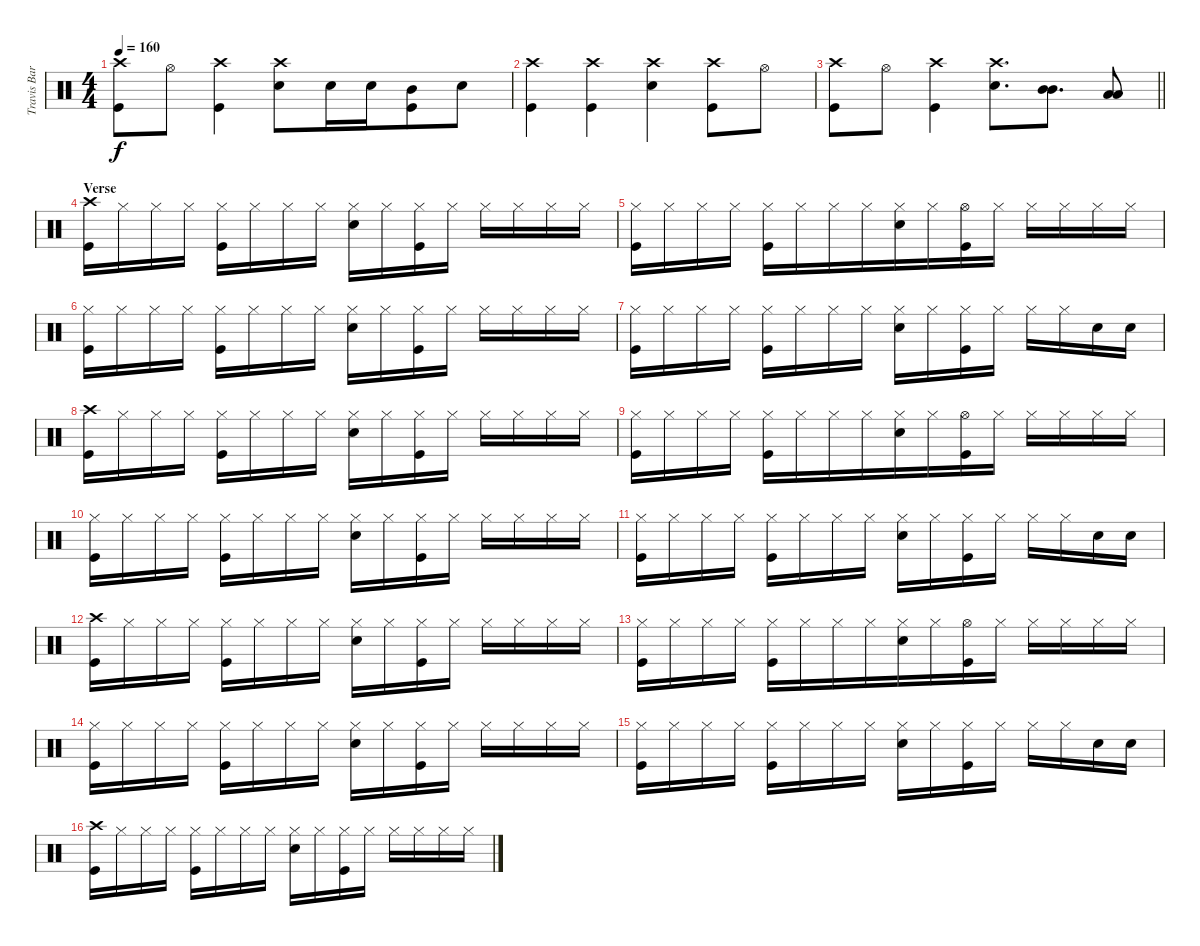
\track ("Travis Barker Drums" "Travis Bar") {instrument percussion}
\staff {score}
\articulation defaults
\ts (4 4)
\tempo 160
\clef neutral
\ks c
("Kick (hit)" "Crash high (hit)").8{dy f} "Hi-Hat (open)".8{beam merge} ("Kick (hit)" "Crash high (hit)").4{beam merge} ("Crash high (hit)" "Snare (hit) 2").8 "Snare (hit) 2".16 "Snare (hit) 2".16{beam merge} ("Kick (hit)" "Mid Tom (hit)").8{beam merge} "Snare (hit) 2".8 |
("Kick (hit)" "Crash high (hit)").4 ("Kick (hit)" "Crash high (hit)").4 ("Crash high (hit)" "Snare (hit) 2").4{beam merge} ("Kick (hit)" "Crash high (hit)").8{beam merge} "Hi-Hat (open)".8 |
\barLineRight lightlight
("Kick (hit)" "Crash high (hit)").8 "Hi-Hat (open)".8{beam merge} ("Kick (hit)" "Crash high (hit)").4{beam merge} ("Crash high (hit)" "Snare (hit) 2").8{d beam merge} ("Mid Tom (hit)" "Mid Tom (hit)").8{d} ("Low Tom (hit)" "Low Tom (hit)").8 |
\section ("" "Verse")
("Crash high (hit)" "Kick (hit)").16 "Hi-Hat (closed)".16{beam merge} "Hi-Hat (closed)".16 "Hi-Hat (closed)".16 ("Hi-Hat (closed)" "Kick (hit)").16{beam merge} "Hi-Hat (closed)".16 "Hi-Hat (closed)".16 "Hi-Hat (closed)".16 ("Hi-Hat (closed)" "Snare (hit) 2").16 "Hi-Hat (closed)".16 ("Hi-Hat (closed)" "Kick (hit)").16 "Hi-Hat (closed)".16 "Hi-Hat (closed)".16{beam merge} "Hi-Hat (closed)".16 "Hi-Hat (closed)".16 "Hi-Hat (closed)".16 |
("Hi-Hat (closed)" "Kick (hit)").16 "Hi-Hat (closed)".16{beam merge} "Hi-Hat (closed)".16 "Hi-Hat (closed)".16 ("Hi-Hat (closed)" "Kick (hit)").16 "Hi-Hat (closed)".16{beam merge} "Hi-Hat (closed)".16 "Hi-Hat (closed)".16{beam merge} ("Hi-Hat (closed)" "Snare (hit) 2").16{beam merge} "Hi-Hat (closed)".16 ("Hi-Hat (open)" "Kick (hit)").16{beam merge} "Hi-Hat (closed)".16 "Hi-Hat (closed)".16{beam merge} "Hi-Hat (closed)".16{beam merge} "Hi-Hat (closed)".16{beam merge} "Hi-Hat (closed)".16 |
("Hi-Hat (closed)" "Kick (hit)").16{beam merge} "Hi-Hat (closed)".16{beam merge} "Hi-Hat (closed)".16{beam merge} "Hi-Hat (closed)".16 ("Hi-Hat (closed)" "Kick (hit)").16 "Hi-Hat (closed)".16{beam merge} "Hi-Hat (closed)".16{beam merge} "Hi-Hat (closed)".16 ("Hi-Hat (closed)" "Snare (hit) 2").16 "Hi-Hat (closed)".16 ("Hi-Hat (closed)" "Kick (hit)").16 "Hi-Hat (closed)".16 "Hi-Hat (closed)".16{beam merge} "Hi-Hat (closed)".16 "Hi-Hat (closed)".16 "Hi-Hat (closed)".16 |
("Hi-Hat (closed)" "Kick (hit)").16 "Hi-Hat (closed)".16{beam merge} "Hi-Hat (closed)".16 "Hi-Hat (closed)".16 ("Hi-Hat (closed)" "Kick (hit)").16 "Hi-Hat (closed)".16{beam merge} "Hi-Hat (closed)".16 "Hi-Hat (closed)".16 ("Hi-Hat (closed)" "Snare (hit) 2").16 "Hi-Hat (closed)".16 ("Hi-Hat (closed)" "Kick (hit)").16 "Hi-Hat (closed)".16 "Hi-Hat (closed)".16{beam merge} "Hi-Hat (closed)".16 "Snare (hit) 2".16 "Snare (hit) 2".16 |
("Crash high (hit)" "Kick (hit)").16 "Hi-Hat (closed)".16{beam merge} "Hi-Hat (closed)".16 "Hi-Hat (closed)".16 ("Hi-Hat (closed)" "Kick (hit)").16 "Hi-Hat (closed)".16{beam merge} "Hi-Hat (closed)".16 "Hi-Hat (closed)".16 ("Hi-Hat (closed)" "Snare (hit) 2").16 "Hi-Hat (closed)".16 ("Hi-Hat (closed)" "Kick (hit)").16 "Hi-Hat (closed)".16 "Hi-Hat (closed)".16{beam merge} "Hi-Hat (closed)".16 "Hi-Hat (closed)".16 "Hi-Hat (closed)".16 |
("Hi-Hat (closed)" "Kick (hit)").16 "Hi-Hat (closed)".16{beam merge} "Hi-Hat (closed)".16 "Hi-Hat (closed)".16 ("Hi-Hat (closed)" "Kick (hit)").16 "Hi-Hat (closed)".16{beam merge} "Hi-Hat (closed)".16 "Hi-Hat (closed)".16{beam merge} ("Hi-Hat (closed)" "Snare (hit) 2").16{beam merge} "Hi-Hat (closed)".16 ("Hi-Hat (open)" "Kick (hit)").16{beam merge} "Hi-Hat (closed)".16 "Hi-Hat (closed)".16{beam merge} "Hi-Hat (closed)".16{beam merge} "Hi-Hat (closed)".16{beam merge} "Hi-Hat (closed)".16 |
("Hi-Hat (closed)" "Kick (hit)").16{beam merge} "Hi-Hat (closed)".16{beam merge} "Hi-Hat (closed)".16{beam merge} "Hi-Hat (closed)".16 ("Hi-Hat (closed)" "Kick (hit)").16 "Hi-Hat (closed)".16{beam merge} "Hi-Hat (closed)".16{beam merge} "Hi-Hat (closed)".16 ("Hi-Hat (closed)" "Snare (hit) 2").16 "Hi-Hat (closed)".16 ("Hi-Hat (closed)" "Kick (hit)").16 "Hi-Hat (closed)".16 "Hi-Hat (closed)".16{beam merge} "Hi-Hat (closed)".16 "Hi-Hat (closed)".16 "Hi-Hat (closed)".16 |
("Hi-Hat (closed)" "Kick (hit)").16 "Hi-Hat (closed)".16{beam merge} "Hi-Hat (closed)".16 "Hi-Hat (closed)".16 ("Hi-Hat (closed)" "Kick (hit)").16 "Hi-Hat (closed)".16{beam merge} "Hi-Hat (closed)".16 "Hi-Hat (closed)".16 ("Hi-Hat (closed)" "Snare (hit) 2").16 "Hi-Hat (closed)".16 ("Hi-Hat (closed)" "Kick (hit)").16 "Hi-Hat (closed)".16 "Hi-Hat (closed)".16{beam merge} "Hi-Hat (closed)".16 "Snare (hit) 2".16 "Snare (hit) 2".16 |
("Crash high (hit)" "Kick (hit)").16 "Hi-Hat (closed)".16{beam merge} "Hi-Hat (closed)".16 "Hi-Hat (closed)".16 ("Hi-Hat (closed)" "Kick (hit)").16 "Hi-Hat (closed)".16{beam merge} "Hi-Hat (closed)".16 "Hi-Hat (closed)".16 ("Hi-Hat (closed)" "Snare (hit) 2").16 "Hi-Hat (closed)".16 ("Hi-Hat (closed)" "Kick (hit)").16 "Hi-Hat (closed)".16 "Hi-Hat (closed)".16{beam merge} "Hi-Hat (closed)".16 "Hi-Hat (closed)".16 "Hi-Hat (closed)".16 |
("Hi-Hat (closed)" "Kick (hit)").16 "Hi-Hat (closed)".16{beam merge} "Hi-Hat (closed)".16 "Hi-Hat (closed)".16 ("Hi-Hat (closed)" "Kick (hit)").16 "Hi-Hat (closed)".16{beam merge} "Hi-Hat (closed)".16 "Hi-Hat (closed)".16{beam merge} ("Hi-Hat (closed)" "Snare (hit) 2").16{beam merge} "Hi-Hat (closed)".16 ("Hi-Hat (open)" "Kick (hit)").16{beam merge} "Hi-Hat (closed)".16 "Hi-Hat (closed)".16{beam merge} "Hi-Hat (closed)".16{beam merge} "Hi-Hat (closed)".16{beam merge} "Hi-Hat (closed)".16 |
("Hi-Hat (closed)" "Kick (hit)").16{beam merge} "Hi-Hat (closed)".16{beam merge} "Hi-Hat (closed)".16{beam merge} "Hi-Hat (closed)".16 ("Hi-Hat (closed)" "Kick (hit)").16 "Hi-Hat (closed)".16{beam merge} "Hi-Hat (closed)".16{beam merge} "Hi-Hat (closed)".16 ("Hi-Hat (closed)" "Snare (hit) 2").16 "Hi-Hat (closed)".16{beam merge} ("Hi-Hat (closed)" "Kick (hit)").16 "Hi-Hat (closed)".16 "Hi-Hat (closed)".16 "Hi-Hat (closed)".16{beam merge} "Hi-Hat (closed)".16 "Hi-Hat (closed)".16 |
("Hi-Hat (closed)" "Kick (hit)").16 "Hi-Hat (closed)".16{beam merge} "Hi-Hat (closed)".16 "Hi-Hat (closed)".16 ("Hi-Hat (closed)" "Kick (hit)").16 "Hi-Hat (closed)".16{beam merge} "Hi-Hat (closed)".16 "Hi-Hat (closed)".16 ("Hi-Hat (closed)" "Snare (hit) 2").16 "Hi-Hat (closed)".16 ("Hi-Hat (closed)" "Kick (hit)").16 "Hi-Hat (closed)".16 "Hi-Hat (closed)".16{beam merge} "Hi-Hat (closed)".16 "Snare (hit) 2".16 "Snare (hit) 2".16 |
("Crash high (hit)" "Kick (hit)").16 "Hi-Hat (closed)".16{beam merge} "Hi-Hat (closed)".16 "Hi-Hat (closed)".16 ("Hi-Hat (closed)" "Kick (hit)").16 "Hi-Hat (closed)".16{beam merge} "Hi-Hat (closed)".16 "Hi-Hat (closed)".16 ("Hi-Hat (closed)" "Snare (hit) 2").16 "Hi-Hat (closed)".16 ("Hi-Hat (closed)" "Kick (hit)").16 "Hi-Hat (closed)".16 "Hi-Hat (closed)".16{beam merge} "Hi-Hat (closed)".16 "Hi-Hat (closed)".16 "Hi-Hat (closed)".16
